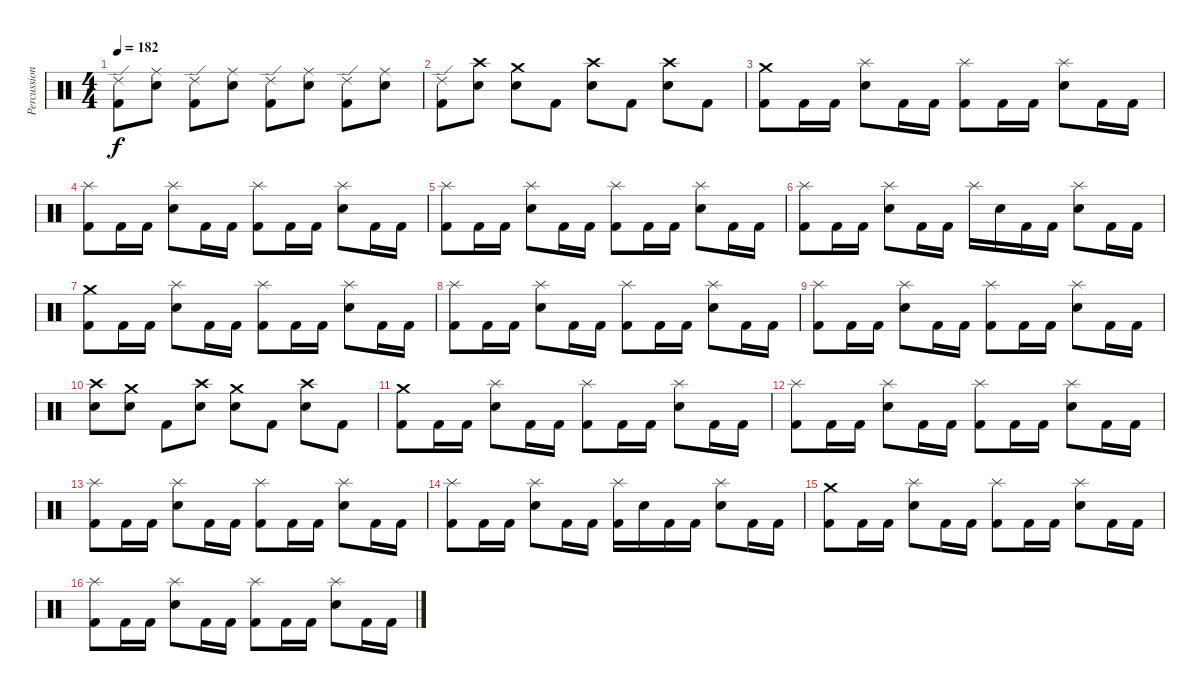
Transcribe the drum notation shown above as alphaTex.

\track ("Percussion" "Percussion") {instrument percussion}
\staff {score}
\articulation defaults
\ts (4 4)
\tempo 182
\clef neutral
\ks c
("Ride (edge) 2" "Kick (hit) 2").8{dy f} ("Ride (middle)" "Electric Snare (hit)").8 ("Ride (edge) 2" "Kick (hit) 2").8 ("Ride (middle)" "Electric Snare (hit)").8 ("Ride (edge) 2" "Kick (hit) 2").8 ("Ride (middle)" "Electric Snare (hit)").8 ("Ride (edge) 2" "Kick (hit) 2").8 ("Ride (middle)" "Electric Snare (hit)").8 |
("Ride (edge) 2" "Kick (hit) 2").8 ("Crash high (hit)" "Electric Snare (hit)").8 ("Crash medium (hit)" "Electric Snare (hit)").8 "Kick (hit) 2".8 ("Crash high (hit)" "Electric Snare (hit)").8 "Kick (hit) 2".8 ("Crash high (hit)" "Electric Snare (hit)").8 "Kick (hit) 2".8 |
("Crash medium (hit)" "Kick (hit) 2").8 "Kick (hit) 2".16 "Kick (hit) 2".16 ("Splash (hit)" "Electric Snare (hit)").8 "Kick (hit) 2".16 "Kick (hit) 2".16 ("Splash (hit)" "Kick (hit) 2").8 "Kick (hit) 2".16 "Kick (hit) 2".16 ("Splash (hit)" "Electric Snare (hit)").8 "Kick (hit) 2".16 "Kick (hit) 2".16 |
("Splash (hit)" "Kick (hit) 2").8 "Kick (hit) 2".16 "Kick (hit) 2".16 ("Splash (hit)" "Electric Snare (hit)").8 "Kick (hit) 2".16 "Kick (hit) 2".16 ("Splash (hit)" "Kick (hit) 2").8 "Kick (hit) 2".16 "Kick (hit) 2".16 ("Splash (hit)" "Electric Snare (hit)").8 "Kick (hit) 2".16 "Kick (hit) 2".16 |
("Splash (hit)" "Kick (hit) 2").8 "Kick (hit) 2".16 "Kick (hit) 2".16 ("Splash (hit)" "Electric Snare (hit)").8 "Kick (hit) 2".16 "Kick (hit) 2".16 ("Splash (hit)" "Kick (hit) 2").8 "Kick (hit) 2".16 "Kick (hit) 2".16 ("Splash (hit)" "Electric Snare (hit)").8 "Kick (hit) 2".16 "Kick (hit) 2".16 |
("Splash (hit)" "Kick (hit) 2").8 "Kick (hit) 2".16 "Kick (hit) 2".16 ("Splash (hit)" "Electric Snare (hit)").8 "Kick (hit) 2".16 "Kick (hit) 2".16 "Splash (hit)".16 "Electric Snare (hit)".16 "Kick (hit) 2".16 "Kick (hit) 2".16 ("Splash (hit)" "Electric Snare (hit)").8 "Kick (hit) 2".16 "Kick (hit) 2".16 |
("Crash medium (hit)" "Kick (hit) 2").8 "Kick (hit) 2".16 "Kick (hit) 2".16 ("Splash (hit)" "Electric Snare (hit)").8 "Kick (hit) 2".16 "Kick (hit) 2".16 ("Splash (hit)" "Kick (hit) 2").8 "Kick (hit) 2".16 "Kick (hit) 2".16 ("Splash (hit)" "Electric Snare (hit)").8 "Kick (hit) 2".16 "Kick (hit) 2".16 |
("Splash (hit)" "Kick (hit) 2").8 "Kick (hit) 2".16 "Kick (hit) 2".16 ("Splash (hit)" "Electric Snare (hit)").8 "Kick (hit) 2".16 "Kick (hit) 2".16 ("Splash (hit)" "Kick (hit) 2").8 "Kick (hit) 2".16 "Kick (hit) 2".16 ("Splash (hit)" "Electric Snare (hit)").8 "Kick (hit) 2".16 "Kick (hit) 2".16 |
("Splash (hit)" "Kick (hit) 2").8 "Kick (hit) 2".16 "Kick (hit) 2".16 ("Splash (hit)" "Electric Snare (hit)").8 "Kick (hit) 2".16 "Kick (hit) 2".16 ("Splash (hit)" "Kick (hit) 2").8 "Kick (hit) 2".16 "Kick (hit) 2".16 ("Splash (hit)" "Electric Snare (hit)").8 "Kick (hit) 2".16 "Kick (hit) 2".16 |
("Crash high (hit)" "Electric Snare (hit)").8 ("Crash medium (hit)" "Electric Snare (hit)").8 "Kick (hit) 2".8 ("Crash high (hit)" "Electric Snare (hit)").8 ("Crash medium (hit)" "Electric Snare (hit)").8 "Kick (hit) 2".8 ("Crash high (hit)" "Electric Snare (hit)").8 "Kick (hit) 2".8 |
("Crash medium (hit)" "Kick (hit) 2").8 "Kick (hit) 2".16 "Kick (hit) 2".16 ("Splash (hit)" "Electric Snare (hit)").8 "Kick (hit) 2".16 "Kick (hit) 2".16 ("Splash (hit)" "Kick (hit) 2").8 "Kick (hit) 2".16 "Kick (hit) 2".16 ("Splash (hit)" "Electric Snare (hit)").8 "Kick (hit) 2".16 "Kick (hit) 2".16 |
("Splash (hit)" "Kick (hit) 2").8 "Kick (hit) 2".16 "Kick (hit) 2".16 ("Splash (hit)" "Electric Snare (hit)").8 "Kick (hit) 2".16 "Kick (hit) 2".16 ("Splash (hit)" "Kick (hit) 2").8 "Kick (hit) 2".16 "Kick (hit) 2".16 ("Splash (hit)" "Electric Snare (hit)").8 "Kick (hit) 2".16 "Kick (hit) 2".16 |
("Splash (hit)" "Kick (hit) 2").8 "Kick (hit) 2".16 "Kick (hit) 2".16 ("Splash (hit)" "Electric Snare (hit)").8 "Kick (hit) 2".16 "Kick (hit) 2".16 ("Splash (hit)" "Kick (hit) 2").8 "Kick (hit) 2".16 "Kick (hit) 2".16 ("Splash (hit)" "Electric Snare (hit)").8 "Kick (hit) 2".16 "Kick (hit) 2".16 |
("Splash (hit)" "Kick (hit) 2").8 "Kick (hit) 2".16 "Kick (hit) 2".16 ("Splash (hit)" "Electric Snare (hit)").8 "Kick (hit) 2".16 "Kick (hit) 2".16 ("Splash (hit)" "Kick (hit) 2").16 "Electric Snare (hit)".16 "Kick (hit) 2".16 "Kick (hit) 2".16 ("Splash (hit)" "Electric Snare (hit)").8 "Kick (hit) 2".16 "Kick (hit) 2".16 |
("Crash medium (hit)" "Kick (hit) 2").8 "Kick (hit) 2".16 "Kick (hit) 2".16 ("Splash (hit)" "Electric Snare (hit)").8 "Kick (hit) 2".16 "Kick (hit) 2".16 ("Splash (hit)" "Kick (hit) 2").8 "Kick (hit) 2".16 "Kick (hit) 2".16 ("Splash (hit)" "Electric Snare (hit)").8 "Kick (hit) 2".16 "Kick (hit) 2".16 |
("Splash (hit)" "Kick (hit) 2").8 "Kick (hit) 2".16 "Kick (hit) 2".16 ("Splash (hit)" "Electric Snare (hit)").8 "Kick (hit) 2".16 "Kick (hit) 2".16 ("Splash (hit)" "Kick (hit) 2").8 "Kick (hit) 2".16 "Kick (hit) 2".16 ("Splash (hit)" "Electric Snare (hit)").8 "Kick (hit) 2".16 "Kick (hit) 2".16
